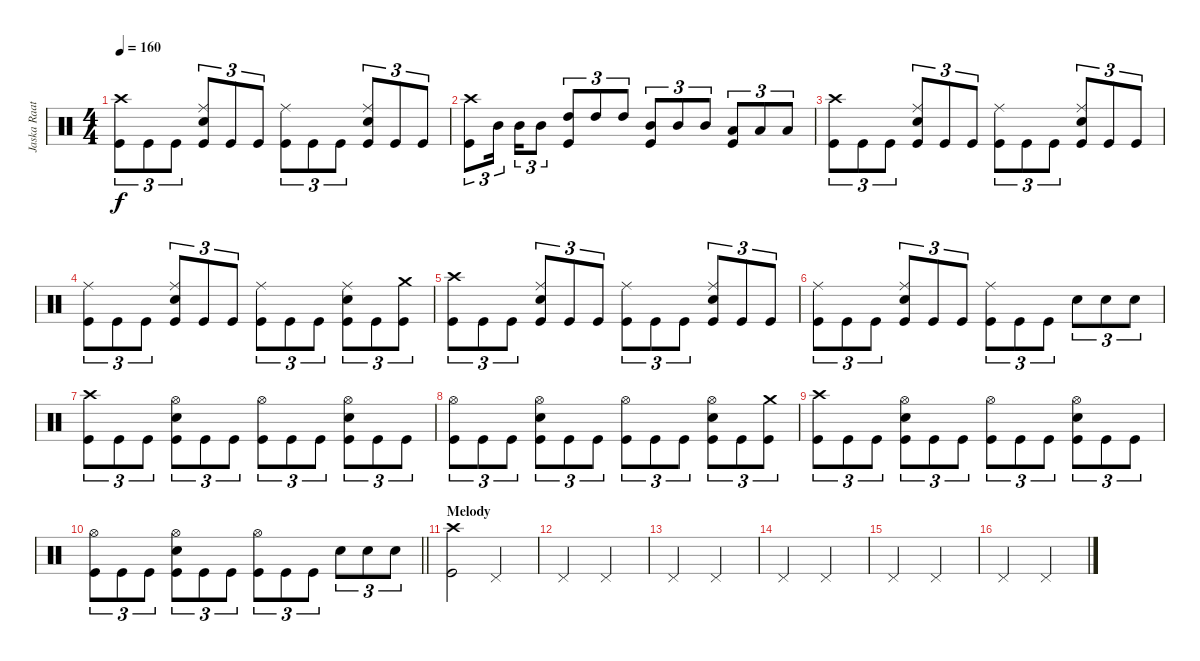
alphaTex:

\track ("Jaska Raatikainen" "Jaska Raat") {instrument percussion}
\staff {score}
\articulation defaults
\ts (4 4)
\tempo 160
\clef neutral
\ks c
("Crash high (hit)" "Kick (hit)").8{tu (3 2) dy f} "Kick (hit)".8{tu (3 2)} "Kick (hit)".8{tu (3 2)} ("Ride (middle)" "Electric Snare (hit)" "Kick (hit)").8{tu (3 2)} "Kick (hit)".8{tu (3 2)} "Kick (hit)".8{tu (3 2)} ("Ride (middle)" "Kick (hit)").8{tu (3 2)} "Kick (hit)".8{tu (3 2)} "Kick (hit)".8{tu (3 2)} ("Ride (middle)" "Electric Snare (hit)" "Kick (hit)").8{tu (3 2)} "Kick (hit)".8{tu (3 2)} "Kick (hit)".8{tu (3 2)} |
("Crash high (hit)" "Kick (hit)").8{tu (3 2)} "Mid Tom (hit)".16{tu (3 2) beam splitsecondary} "Mid Tom (hit)".16{tu (3 2)} "Mid Tom (hit)".8{tu (3 2)} ("High Tom (hit)" "Kick (hit)").8{tu (3 2)} "High Tom (hit)".8{tu (3 2)} "High Tom (hit)".8{tu (3 2)} ("Mid Tom (hit)" "Kick (hit)").8{tu (3 2)} "Mid Tom (hit)".8{tu (3 2)} "Mid Tom (hit)".8{tu (3 2)} ("Low Tom (hit)" "Kick (hit)").8{tu (3 2)} "Low Tom (hit)".8{tu (3 2)} "Low Tom (hit)".8{tu (3 2)} |
("Crash high (hit)" "Kick (hit)").8{tu (3 2)} "Kick (hit)".8{tu (3 2)} "Kick (hit)".8{tu (3 2)} ("Ride (middle)" "Electric Snare (hit)" "Kick (hit)").8{tu (3 2)} "Kick (hit)".8{tu (3 2)} "Kick (hit)".8{tu (3 2)} ("Ride (middle)" "Kick (hit)").8{tu (3 2)} "Kick (hit)".8{tu (3 2)} "Kick (hit)".8{tu (3 2)} ("Ride (middle)" "Electric Snare (hit)" "Kick (hit)").8{tu (3 2)} "Kick (hit)".8{tu (3 2)} "Kick (hit)".8{tu (3 2)} |
("Ride (middle)" "Kick (hit)").8{tu (3 2)} "Kick (hit)".8{tu (3 2)} "Kick (hit)".8{tu (3 2)} ("Ride (middle)" "Electric Snare (hit)" "Kick (hit)").8{tu (3 2)} "Kick (hit)".8{tu (3 2)} "Kick (hit)".8{tu (3 2)} ("Ride (middle)" "Kick (hit)").8{tu (3 2)} "Kick (hit)".8{tu (3 2)} "Kick (hit)".8{tu (3 2)} ("Ride (middle)" "Electric Snare (hit)" "Kick (hit)").8{tu (3 2)} "Kick (hit)".8{tu (3 2)} ("Crash medium (hit)" "Kick (hit)").8{tu (3 2)} |
("Crash high (hit)" "Kick (hit)").8{tu (3 2)} "Kick (hit)".8{tu (3 2)} "Kick (hit)".8{tu (3 2)} ("Ride (middle)" "Electric Snare (hit)" "Kick (hit)").8{tu (3 2)} "Kick (hit)".8{tu (3 2)} "Kick (hit)".8{tu (3 2)} ("Ride (middle)" "Kick (hit)").8{tu (3 2)} "Kick (hit)".8{tu (3 2)} "Kick (hit)".8{tu (3 2)} ("Ride (middle)" "Electric Snare (hit)" "Kick (hit)").8{tu (3 2)} "Kick (hit)".8{tu (3 2)} "Kick (hit)".8{tu (3 2)} |
("Ride (middle)" "Kick (hit)").8{tu (3 2)} "Kick (hit)".8{tu (3 2)} "Kick (hit)".8{tu (3 2)} ("Ride (middle)" "Electric Snare (hit)" "Kick (hit)").8{tu (3 2)} "Kick (hit)".8{tu (3 2)} "Kick (hit)".8{tu (3 2)} ("Ride (middle)" "Kick (hit)").8{tu (3 2)} "Kick (hit)".8{tu (3 2)} "Kick (hit)".8{tu (3 2)} "Electric Snare (hit)".8{tu (3 2)} "Electric Snare (hit)".8{tu (3 2)} "Electric Snare (hit)".8{tu (3 2)} |
("Crash high (hit)" "Kick (hit)").8{tu (3 2)} "Kick (hit)".8{tu (3 2)} "Kick (hit)".8{tu (3 2)} ("Hi-Hat (open)" "Electric Snare (hit)" "Kick (hit)").8{tu (3 2)} "Kick (hit)".8{tu (3 2)} "Kick (hit)".8{tu (3 2)} ("Hi-Hat (open)" "Kick (hit)").8{tu (3 2)} "Kick (hit)".8{tu (3 2)} "Kick (hit)".8{tu (3 2)} ("Hi-Hat (open)" "Electric Snare (hit)" "Kick (hit)").8{tu (3 2)} "Kick (hit)".8{tu (3 2)} "Kick (hit)".8{tu (3 2)} |
("Hi-Hat (open)" "Kick (hit)").8{tu (3 2)} "Kick (hit)".8{tu (3 2)} "Kick (hit)".8{tu (3 2)} ("Hi-Hat (open)" "Electric Snare (hit)" "Kick (hit)").8{tu (3 2)} "Kick (hit)".8{tu (3 2)} "Kick (hit)".8{tu (3 2)} ("Hi-Hat (open)" "Kick (hit)").8{tu (3 2)} "Kick (hit)".8{tu (3 2)} "Kick (hit)".8{tu (3 2)} ("Hi-Hat (open)" "Electric Snare (hit)" "Kick (hit)").8{tu (3 2)} "Kick (hit)".8{tu (3 2)} ("Crash medium (hit)" "Kick (hit)").8{tu (3 2)} |
("Crash high (hit)" "Kick (hit)").8{tu (3 2)} "Kick (hit)".8{tu (3 2)} "Kick (hit)".8{tu (3 2)} ("Hi-Hat (open)" "Electric Snare (hit)" "Kick (hit)").8{tu (3 2)} "Kick (hit)".8{tu (3 2)} "Kick (hit)".8{tu (3 2)} ("Hi-Hat (open)" "Kick (hit)").8{tu (3 2)} "Kick (hit)".8{tu (3 2)} "Kick (hit)".8{tu (3 2)} ("Hi-Hat (open)" "Electric Snare (hit)" "Kick (hit)").8{tu (3 2)} "Kick (hit)".8{tu (3 2)} "Kick (hit)".8{tu (3 2)} |
\barLineRight lightlight
("Hi-Hat (open)" "Kick (hit)").8{tu (3 2)} "Kick (hit)".8{tu (3 2)} "Kick (hit)".8{tu (3 2)} ("Hi-Hat (open)" "Electric Snare (hit)" "Kick (hit)").8{tu (3 2)} "Kick (hit)".8{tu (3 2)} "Kick (hit)".8{tu (3 2)} ("Hi-Hat (open)" "Kick (hit)").8{tu (3 2)} "Kick (hit)".8{tu (3 2)} "Kick (hit)".8{tu (3 2)} "Electric Snare (hit)".8{tu (3 2)} "Electric Snare (hit)".8{tu (3 2)} "Electric Snare (hit)".8{tu (3 2)} |
\section ("" "Melody")
("Crash high (hit)" "Kick (hit)").2 "Pedal Hi-Hat (hit)".2 |
"Pedal Hi-Hat (hit)".2 "Pedal Hi-Hat (hit)".2 |
"Pedal Hi-Hat (hit)".2 "Pedal Hi-Hat (hit)".2 |
"Pedal Hi-Hat (hit)".2 "Pedal Hi-Hat (hit)".2 |
"Pedal Hi-Hat (hit)".2 "Pedal Hi-Hat (hit)".2 |
"Pedal Hi-Hat (hit)".2 "Pedal Hi-Hat (hit)".2
